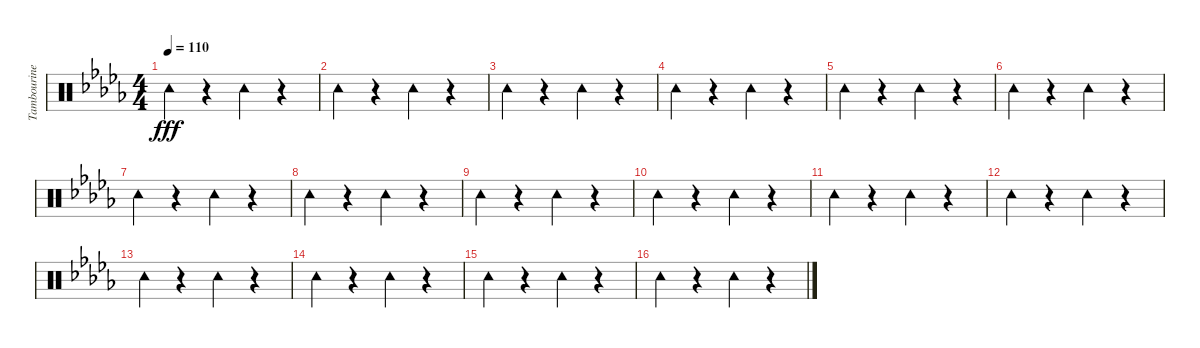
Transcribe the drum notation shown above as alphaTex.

\track ("Tambourine" "Tambourine") {instrument percussion}
\staff {score}
\articulation defaults
\ts (4 4)
\tempo 110
\clef neutral
\ks db "Tambourine (hit)".4{dy fff}
r.4 "Tambourine (hit)".4 r.4 |
"Tambourine (hit)".4 r.4 "Tambourine (hit)".4 r.4 |
"Tambourine (hit)".4 r.4 "Tambourine (hit)".4 r.4 |
"Tambourine (hit)".4 r.4 "Tambourine (hit)".4 r.4 |
"Tambourine (hit)".4 r.4 "Tambourine (hit)".4 r.4 |
"Tambourine (hit)".4 r.4 "Tambourine (hit)".4 r.4 |
"Tambourine (hit)".4 r.4 "Tambourine (hit)".4 r.4 |
"Tambourine (hit)".4 r.4 "Tambourine (hit)".4 r.4 |
"Tambourine (hit)".4 r.4 "Tambourine (hit)".4 r.4 |
"Tambourine (hit)".4 r.4 "Tambourine (hit)".4 r.4 |
"Tambourine (hit)".4 r.4 "Tambourine (hit)".4 r.4 |
"Tambourine (hit)".4 r.4 "Tambourine (hit)".4 r.4 |
"Tambourine (hit)".4 r.4 "Tambourine (hit)".4 r.4 |
"Tambourine (hit)".4 r.4 "Tambourine (hit)".4 r.4 |
"Tambourine (hit)".4 r.4 "Tambourine (hit)".4 r.4 |
"Tambourine (hit)".4 r.4 "Tambourine (hit)".4 r.4
